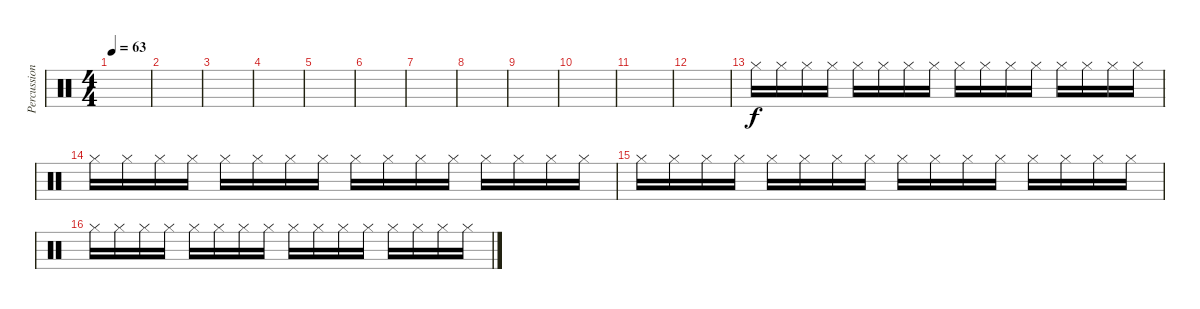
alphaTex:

\track ("Percussion" "Percussion") {instrument percussion}
\staff {score}
\articulation defaults
\ts (4 4)
\tempo 63
\clef neutral
\ks c
|
|
|
|
|
|
|
|
|
|
|
|
"Hi-Hat (closed)".16 "Hi-Hat (closed)".16 "Hi-Hat (closed)".16 "Hi-Hat (closed)".16 "Hi-Hat (closed)".16 "Hi-Hat (closed)".16 "Hi-Hat (closed)".16 "Hi-Hat (closed)".16 "Hi-Hat (closed)".16 "Hi-Hat (closed)".16 "Hi-Hat (closed)".16 "Hi-Hat (closed)".16 "Hi-Hat (closed)".16 "Hi-Hat (closed)".16 "Hi-Hat (closed)".16 "Hi-Hat (closed)".16 |
"Hi-Hat (closed)".16 "Hi-Hat (closed)".16 "Hi-Hat (closed)".16 "Hi-Hat (closed)".16 "Hi-Hat (closed)".16 "Hi-Hat (closed)".16 "Hi-Hat (closed)".16 "Hi-Hat (closed)".16 "Hi-Hat (closed)".16 "Hi-Hat (closed)".16 "Hi-Hat (closed)".16 "Hi-Hat (closed)".16 "Hi-Hat (closed)".16 "Hi-Hat (closed)".16 "Hi-Hat (closed)".16 "Hi-Hat (closed)".16 |
"Hi-Hat (closed)".16 "Hi-Hat (closed)".16 "Hi-Hat (closed)".16 "Hi-Hat (closed)".16 "Hi-Hat (closed)".16 "Hi-Hat (closed)".16 "Hi-Hat (closed)".16 "Hi-Hat (closed)".16 "Hi-Hat (closed)".16 "Hi-Hat (closed)".16 "Hi-Hat (closed)".16 "Hi-Hat (closed)".16 "Hi-Hat (closed)".16 "Hi-Hat (closed)".16 "Hi-Hat (closed)".16 "Hi-Hat (closed)".16 |
"Hi-Hat (closed)".16 "Hi-Hat (closed)".16 "Hi-Hat (closed)".16 "Hi-Hat (closed)".16 "Hi-Hat (closed)".16 "Hi-Hat (closed)".16 "Hi-Hat (closed)".16 "Hi-Hat (closed)".16 "Hi-Hat (closed)".16 "Hi-Hat (closed)".16 "Hi-Hat (closed)".16 "Hi-Hat (closed)".16 "Hi-Hat (closed)".16 "Hi-Hat (closed)".16 "Hi-Hat (closed)".16 "Hi-Hat (closed)".16
